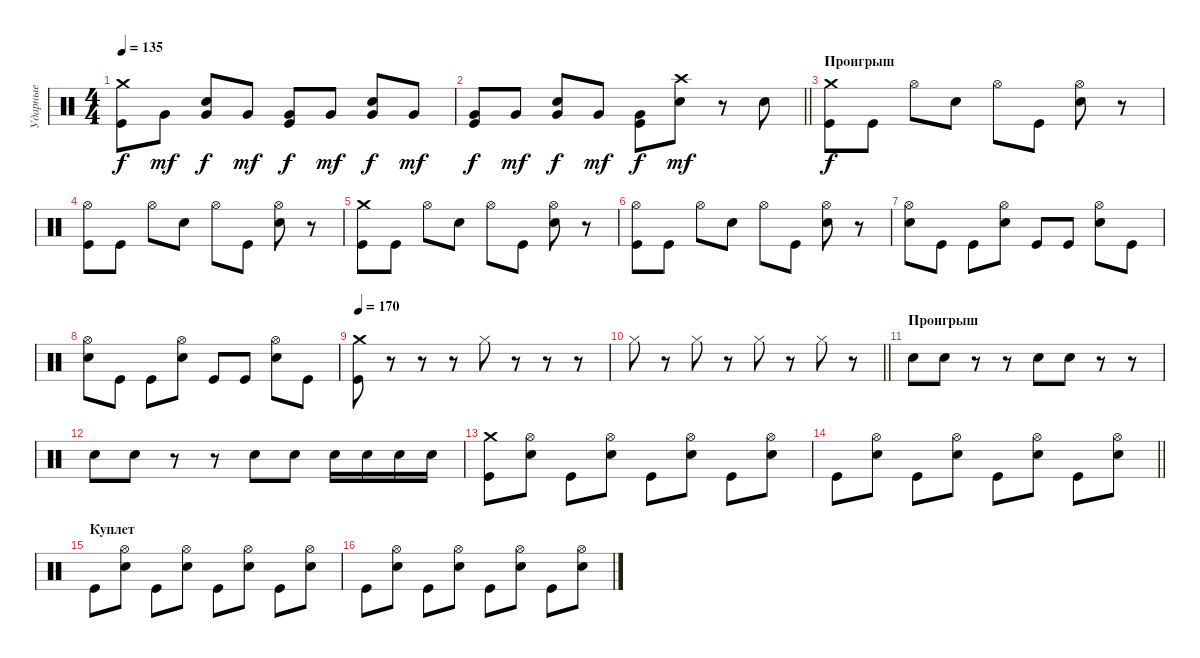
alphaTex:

\track ("Ударные" "Ударные") {instrument percussion}
\staff {score}
\articulation defaults
\ts (4 4)
\tempo 135
\clef neutral
\ks c
("Crash medium (hit)" "Kick (hit)").8{dy f} "Very Low Tom (hit)".8{dy mf} ("Very Low Tom (hit)" "Electric Snare (hit)").8{dy f} "Very Low Tom (hit)".8{dy mf} ("Very Low Tom (hit)" "Kick (hit)").8{dy f} "Very Low Tom (hit)".8{dy mf} ("Very Low Tom (hit)" "Electric Snare (hit)").8{dy f} "Very Low Tom (hit)".8{dy mf} |
\barLineRight lightlight
("Very Low Tom (hit)" "Kick (hit)").8{dy f} "Very Low Tom (hit)".8{dy mf} ("Very Low Tom (hit)" "Electric Snare (hit)").8{dy f} "Very Low Tom (hit)".8{dy mf} ("Very Low Tom (hit)" "Kick (hit)").8{dy f} ("Crash high (hit)" "Electric Snare (hit)").8{dy mf} r.8 "Electric Snare (hit)".8 |
\section ("" "Проигрыш")
("Crash medium (hit)" "Kick (hit)").8{dy f} "Kick (hit)".8 "Hi-Hat (open)".8 "Electric Snare (hit)".8 "Hi-Hat (open)".8 "Kick (hit)".8 ("Hi-Hat (open)" "Electric Snare (hit)").8 r.8 |
("Hi-Hat (open)" "Kick (hit)").8 "Kick (hit)".8 "Hi-Hat (open)".8 "Electric Snare (hit)".8 "Hi-Hat (open)".8 "Kick (hit)".8 ("Hi-Hat (open)" "Electric Snare (hit)").8 r.8 |
("Crash medium (hit)" "Kick (hit)").8 "Kick (hit)".8 "Hi-Hat (open)".8 "Electric Snare (hit)".8 "Hi-Hat (open)".8 "Kick (hit)".8 ("Hi-Hat (open)" "Electric Snare (hit)").8 r.8 |
("Hi-Hat (open)" "Kick (hit)").8 "Kick (hit)".8 "Hi-Hat (open)".8 "Electric Snare (hit)".8 "Hi-Hat (open)".8 "Kick (hit)".8 ("Hi-Hat (open)" "Electric Snare (hit)").8 r.8 |
("Hi-Hat (open)" "Electric Snare (hit)").8 "Kick (hit)".8 "Kick (hit)".8 ("Hi-Hat (open)" "Electric Snare (hit)").8 "Kick (hit)".8 "Kick (hit)".8 ("Hi-Hat (open)" "Electric Snare (hit)").8 "Kick (hit)".8 |
("Hi-Hat (open)" "Electric Snare (hit)").8 "Kick (hit)".8 "Kick (hit)".8 ("Hi-Hat (open)" "Electric Snare (hit)").8 "Kick (hit)".8 "Kick (hit)".8 ("Hi-Hat (open)" "Electric Snare (hit)").8 "Kick (hit)".8 |
\tempo 170
("Crash medium (hit)" "Kick (hit)").8 r.8 r.8 r.8 "Hi-Hat (closed)".8 r.8 r.8 r.8 |
\barLineRight lightlight "Hi-Hat (closed)".8
r.8 "Hi-Hat (closed)".8 r.8 "Hi-Hat (closed)".8 r.8 "Hi-Hat (closed)".8 r.8 |
\section ("" "Проигрыш")
"Electric Snare (hit)".8 "Electric Snare (hit)".8 r.8 r.8 "Electric Snare (hit)".8 "Electric Snare (hit)".8 r.8 r.8 |
"Electric Snare (hit)".8 "Electric Snare (hit)".8 r.8 r.8 "Electric Snare (hit)".8 "Electric Snare (hit)".8 "Electric Snare (hit)".16 "Electric Snare (hit)".16 "Electric Snare (hit)".16 "Electric Snare (hit)".16 |
("Crash medium (hit)" "Kick (hit)").8 ("Hi-Hat (open)" "Electric Snare (hit)").8 "Kick (hit)".8 ("Hi-Hat (open)" "Electric Snare (hit)").8 "Kick (hit)".8 ("Hi-Hat (open)" "Electric Snare (hit)").8 "Kick (hit)".8 ("Hi-Hat (open)" "Electric Snare (hit)").8 |
\barLineRight lightlight "Kick (hit)".8
("Hi-Hat (open)" "Electric Snare (hit)").8 "Kick (hit)".8 ("Hi-Hat (open)" "Electric Snare (hit)").8 "Kick (hit)".8 ("Hi-Hat (open)" "Electric Snare (hit)").8 "Kick (hit)".8 ("Hi-Hat (open)" "Electric Snare (hit)").8 |
\section ("" "Куплет")
"Kick (hit)".8 ("Hi-Hat (open)" "Electric Snare (hit)").8 "Kick (hit)".8 ("Hi-Hat (open)" "Electric Snare (hit)").8 "Kick (hit)".8 ("Hi-Hat (open)" "Electric Snare (hit)").8 "Kick (hit)".8 ("Hi-Hat (open)" "Electric Snare (hit)").8 |
"Kick (hit)".8 ("Hi-Hat (open)" "Electric Snare (hit)").8 "Kick (hit)".8 ("Hi-Hat (open)" "Electric Snare (hit)").8 "Kick (hit)".8 ("Hi-Hat (open)" "Electric Snare (hit)").8 "Kick (hit)".8 ("Hi-Hat (open)" "Electric Snare (hit)").8
